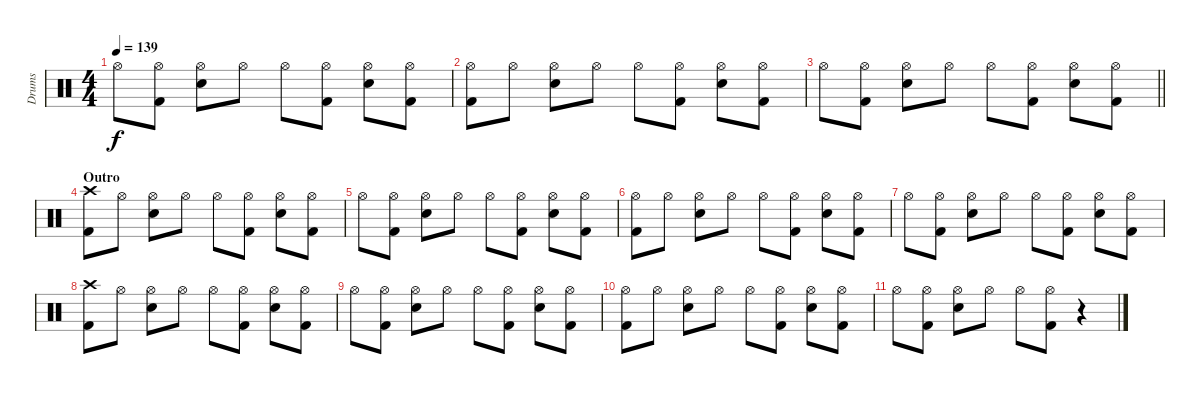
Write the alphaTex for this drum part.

\track ("Drums" "Drums") {instrument percussion}
\staff {score}
\articulation defaults
\ts (4 4)
\tempo 139
\clef neutral
\ks c "Hi-Hat (open)".8{dy f}
("Hi-Hat (open)" "Kick (hit) 2").8 ("Hi-Hat (open)" "Snare (hit) 2").8 "Hi-Hat (open)".8 "Hi-Hat (open)".8 ("Hi-Hat (open)" "Kick (hit) 2").8 ("Hi-Hat (open)" "Snare (hit) 2").8 ("Hi-Hat (open)" "Kick (hit) 2").8 |
("Hi-Hat (open)" "Kick (hit) 2").8 "Hi-Hat (open)".8 ("Hi-Hat (open)" "Snare (hit) 2").8 "Hi-Hat (open)".8 "Hi-Hat (open)".8 ("Hi-Hat (open)" "Kick (hit) 2").8 ("Hi-Hat (open)" "Snare (hit) 2").8 ("Hi-Hat (open)" "Kick (hit) 2").8 |
\barLineRight lightlight "Hi-Hat (open)".8
("Hi-Hat (open)" "Kick (hit) 2").8 ("Hi-Hat (open)" "Snare (hit) 2").8 "Hi-Hat (open)".8 "Hi-Hat (open)".8 ("Hi-Hat (open)" "Kick (hit) 2").8 ("Hi-Hat (open)" "Snare (hit) 2").8 ("Hi-Hat (open)" "Kick (hit) 2").8 |
\section ("" "Outro")
("Crash high (hit)" "Kick (hit) 2").8 "Hi-Hat (open)".8 ("Hi-Hat (open)" "Snare (hit) 2").8 "Hi-Hat (open)".8 "Hi-Hat (open)".8 ("Hi-Hat (open)" "Kick (hit) 2").8 ("Hi-Hat (open)" "Snare (hit) 2").8 ("Hi-Hat (open)" "Kick (hit) 2").8 |
"Hi-Hat (open)".8 ("Hi-Hat (open)" "Kick (hit) 2").8 ("Hi-Hat (open)" "Snare (hit) 2").8 "Hi-Hat (open)".8 "Hi-Hat (open)".8 ("Hi-Hat (open)" "Kick (hit) 2").8 ("Hi-Hat (open)" "Snare (hit) 2").8 ("Hi-Hat (open)" "Kick (hit) 2").8 |
("Hi-Hat (open)" "Kick (hit) 2").8 "Hi-Hat (open)".8 ("Hi-Hat (open)" "Snare (hit) 2").8 "Hi-Hat (open)".8 "Hi-Hat (open)".8 ("Hi-Hat (open)" "Kick (hit) 2").8 ("Hi-Hat (open)" "Snare (hit) 2").8 ("Hi-Hat (open)" "Kick (hit) 2").8 |
"Hi-Hat (open)".8 ("Hi-Hat (open)" "Kick (hit) 2").8 ("Hi-Hat (open)" "Snare (hit) 2").8 "Hi-Hat (open)".8 "Hi-Hat (open)".8 ("Hi-Hat (open)" "Kick (hit) 2").8 ("Hi-Hat (open)" "Snare (hit) 2").8 ("Hi-Hat (open)" "Kick (hit) 2").8 |
("Crash high (hit)" "Kick (hit) 2").8 "Hi-Hat (open)".8 ("Hi-Hat (open)" "Snare (hit) 2").8 "Hi-Hat (open)".8 "Hi-Hat (open)".8 ("Hi-Hat (open)" "Kick (hit) 2").8 ("Hi-Hat (open)" "Snare (hit) 2").8 ("Hi-Hat (open)" "Kick (hit) 2").8 |
"Hi-Hat (open)".8 ("Hi-Hat (open)" "Kick (hit) 2").8 ("Hi-Hat (open)" "Snare (hit) 2").8 "Hi-Hat (open)".8 "Hi-Hat (open)".8 ("Hi-Hat (open)" "Kick (hit) 2").8 ("Hi-Hat (open)" "Snare (hit) 2").8 ("Hi-Hat (open)" "Kick (hit) 2").8 |
("Hi-Hat (open)" "Kick (hit) 2").8 "Hi-Hat (open)".8 ("Hi-Hat (open)" "Snare (hit) 2").8 "Hi-Hat (open)".8 "Hi-Hat (open)".8 ("Hi-Hat (open)" "Kick (hit) 2").8 ("Hi-Hat (open)" "Snare (hit) 2").8 ("Hi-Hat (open)" "Kick (hit) 2").8 |
"Hi-Hat (open)".8 ("Hi-Hat (open)" "Kick (hit) 2").8 ("Hi-Hat (open)" "Snare (hit) 2").8 "Hi-Hat (open)".8 "Hi-Hat (open)".8 ("Hi-Hat (open)" "Kick (hit) 2").8 r.4
